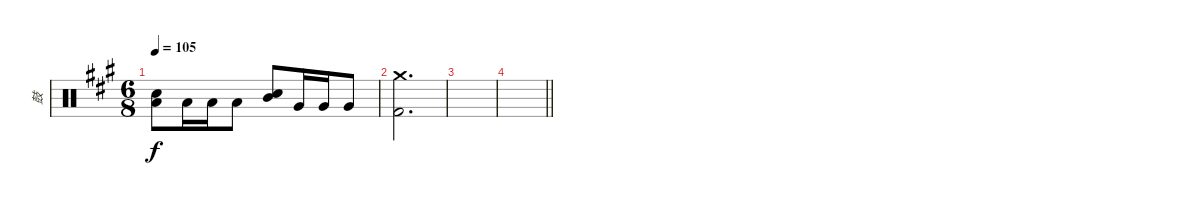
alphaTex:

\track ("鼓" "鼓") {instrument percussion}
\staff {score}
\articulation defaults
\ts (6 8)
\tempo 105
\clef neutral
\ks a
("Electric Snare (hit)" "Low Tom (hit)").8{dy f} "Low Tom (hit)".16 "Low Tom (hit)".16 "Low Tom (hit)".8 ("Electric Snare (hit)" "Mid Tom (hit)").8 "Very Low Tom (hit)".16 "Very Low Tom (hit)".16 "Very Low Tom (hit)".8 |
("Crash medium (hit)" "Kick (hit) 2").2{d} |
|
\barLineRight lightlight
